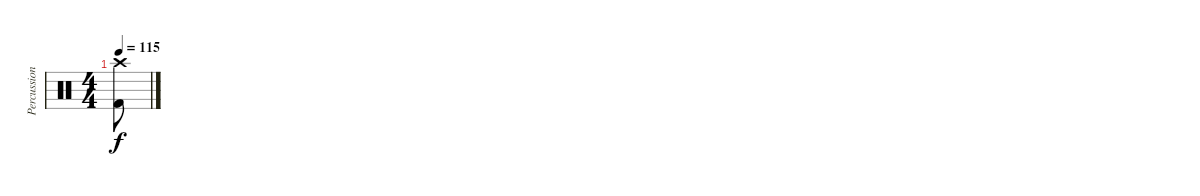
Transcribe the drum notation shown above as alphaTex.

\track ("Percussion" "Percussion") {instrument percussion}
\staff {score}
\articulation defaults
\ts (4 4)
\tempo 115
\clef neutral
\ks c
("Crash high (hit)" "Kick (hit) 2").8{dy f}
